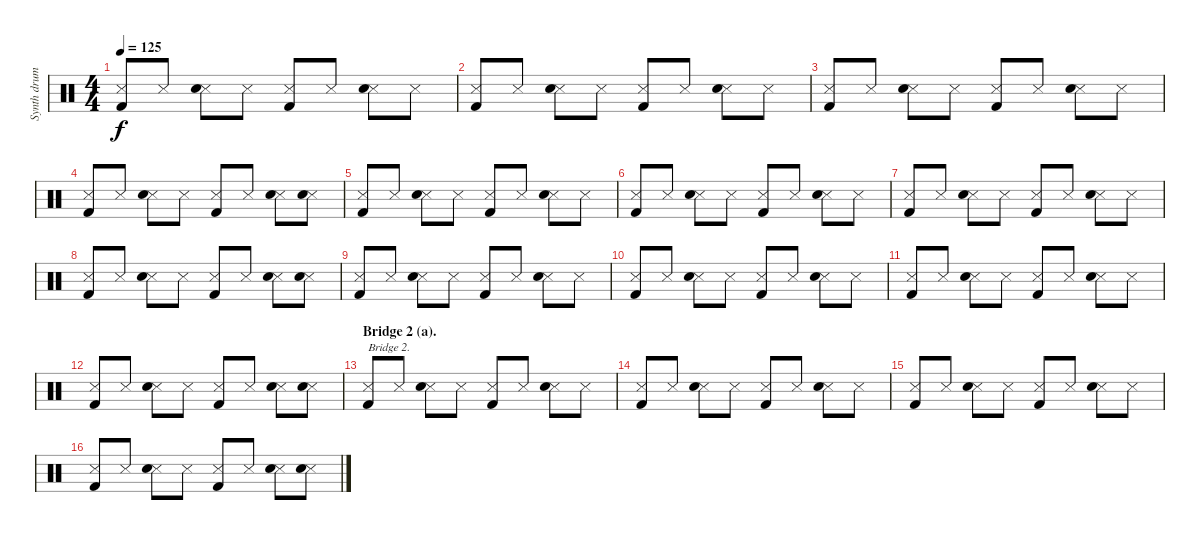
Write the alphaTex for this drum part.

\track ("Synth drums" "Synth drum") {instrument percussion}
\staff {score}
\articulation defaults
\ts (4 4)
\tempo 125
\clef neutral
\ks c
("Snare (side stick) 3" "Kick (hit) 2").8{dy f} "Snare (side stick) 3".8 ("Snare (side stick) 3" "Electric Snare (hit)").8 "Snare (side stick) 3".8 ("Snare (side stick) 3" "Kick (hit) 2").8 "Snare (side stick) 3".8 ("Snare (side stick) 3" "Electric Snare (hit)").8 "Snare (side stick) 3".8 |
("Snare (side stick) 3" "Kick (hit) 2").8 "Snare (side stick) 3".8 ("Snare (side stick) 3" "Electric Snare (hit)").8 "Snare (side stick) 3".8 ("Snare (side stick) 3" "Kick (hit) 2").8 "Snare (side stick) 3".8 ("Snare (side stick) 3" "Electric Snare (hit)").8 "Snare (side stick) 3".8 |
("Snare (side stick) 3" "Kick (hit) 2").8 "Snare (side stick) 3".8 ("Snare (side stick) 3" "Electric Snare (hit)").8 "Snare (side stick) 3".8 ("Snare (side stick) 3" "Kick (hit) 2").8 "Snare (side stick) 3".8 ("Snare (side stick) 3" "Electric Snare (hit)").8 "Snare (side stick) 3".8 |
("Snare (side stick) 3" "Kick (hit) 2").8 "Snare (side stick) 3".8 ("Snare (side stick) 3" "Electric Snare (hit)").8 "Snare (side stick) 3".8 ("Snare (side stick) 3" "Kick (hit) 2").8 "Snare (side stick) 3".8 ("Snare (side stick) 3" "Electric Snare (hit)").8 ("Snare (side stick) 3" "Electric Snare (hit)").8 |
("Snare (side stick) 3" "Kick (hit) 2").8 "Snare (side stick) 3".8 ("Snare (side stick) 3" "Electric Snare (hit)").8 "Snare (side stick) 3".8 ("Snare (side stick) 3" "Kick (hit) 2").8 "Snare (side stick) 3".8 ("Snare (side stick) 3" "Electric Snare (hit)").8 "Snare (side stick) 3".8 |
("Snare (side stick) 3" "Kick (hit) 2").8 "Snare (side stick) 3".8 ("Snare (side stick) 3" "Electric Snare (hit)").8 "Snare (side stick) 3".8 ("Snare (side stick) 3" "Kick (hit) 2").8 "Snare (side stick) 3".8 ("Snare (side stick) 3" "Electric Snare (hit)").8 "Snare (side stick) 3".8 |
("Snare (side stick) 3" "Kick (hit) 2").8 "Snare (side stick) 3".8 ("Snare (side stick) 3" "Electric Snare (hit)").8 "Snare (side stick) 3".8 ("Snare (side stick) 3" "Kick (hit) 2").8 "Snare (side stick) 3".8 ("Snare (side stick) 3" "Electric Snare (hit)").8 "Snare (side stick) 3".8 |
("Snare (side stick) 3" "Kick (hit) 2").8 "Snare (side stick) 3".8 ("Snare (side stick) 3" "Electric Snare (hit)").8 "Snare (side stick) 3".8 ("Snare (side stick) 3" "Kick (hit) 2").8 "Snare (side stick) 3".8 ("Snare (side stick) 3" "Electric Snare (hit)").8 ("Snare (side stick) 3" "Electric Snare (hit)").8 |
("Snare (side stick) 3" "Kick (hit) 2").8 "Snare (side stick) 3".8 ("Snare (side stick) 3" "Electric Snare (hit)").8 "Snare (side stick) 3".8 ("Snare (side stick) 3" "Kick (hit) 2").8 "Snare (side stick) 3".8 ("Snare (side stick) 3" "Electric Snare (hit)").8 "Snare (side stick) 3".8 |
("Snare (side stick) 3" "Kick (hit) 2").8 "Snare (side stick) 3".8 ("Snare (side stick) 3" "Electric Snare (hit)").8 "Snare (side stick) 3".8 ("Snare (side stick) 3" "Kick (hit) 2").8 "Snare (side stick) 3".8 ("Snare (side stick) 3" "Electric Snare (hit)").8 "Snare (side stick) 3".8 |
("Snare (side stick) 3" "Kick (hit) 2").8 "Snare (side stick) 3".8 ("Snare (side stick) 3" "Electric Snare (hit)").8 "Snare (side stick) 3".8 ("Snare (side stick) 3" "Kick (hit) 2").8 "Snare (side stick) 3".8 ("Snare (side stick) 3" "Electric Snare (hit)").8 "Snare (side stick) 3".8 |
("Snare (side stick) 3" "Kick (hit) 2").8 "Snare (side stick) 3".8 ("Snare (side stick) 3" "Electric Snare (hit)").8 "Snare (side stick) 3".8 ("Snare (side stick) 3" "Kick (hit) 2").8 "Snare (side stick) 3".8 ("Snare (side stick) 3" "Electric Snare (hit)").8 ("Snare (side stick) 3" "Electric Snare (hit)").8 |
\section ("" "Bridge 2 (a).")
("Snare (side stick) 3" "Kick (hit) 2").8{txt "Bridge 2."} "Snare (side stick) 3".8 ("Snare (side stick) 3" "Electric Snare (hit)").8 "Snare (side stick) 3".8 ("Snare (side stick) 3" "Kick (hit) 2").8 "Snare (side stick) 3".8 ("Snare (side stick) 3" "Electric Snare (hit)").8 "Snare (side stick) 3".8 |
("Snare (side stick) 3" "Kick (hit) 2").8 "Snare (side stick) 3".8 ("Snare (side stick) 3" "Electric Snare (hit)").8 "Snare (side stick) 3".8 ("Snare (side stick) 3" "Kick (hit) 2").8 "Snare (side stick) 3".8 ("Snare (side stick) 3" "Electric Snare (hit)").8 "Snare (side stick) 3".8 |
("Snare (side stick) 3" "Kick (hit) 2").8 "Snare (side stick) 3".8 ("Snare (side stick) 3" "Electric Snare (hit)").8 "Snare (side stick) 3".8 ("Snare (side stick) 3" "Kick (hit) 2").8 "Snare (side stick) 3".8 ("Snare (side stick) 3" "Electric Snare (hit)").8 "Snare (side stick) 3".8 |
("Snare (side stick) 3" "Kick (hit) 2").8 "Snare (side stick) 3".8 ("Snare (side stick) 3" "Electric Snare (hit)").8 "Snare (side stick) 3".8 ("Snare (side stick) 3" "Kick (hit) 2").8 "Snare (side stick) 3".8 ("Snare (side stick) 3" "Electric Snare (hit)").8 ("Snare (side stick) 3" "Electric Snare (hit)").8
